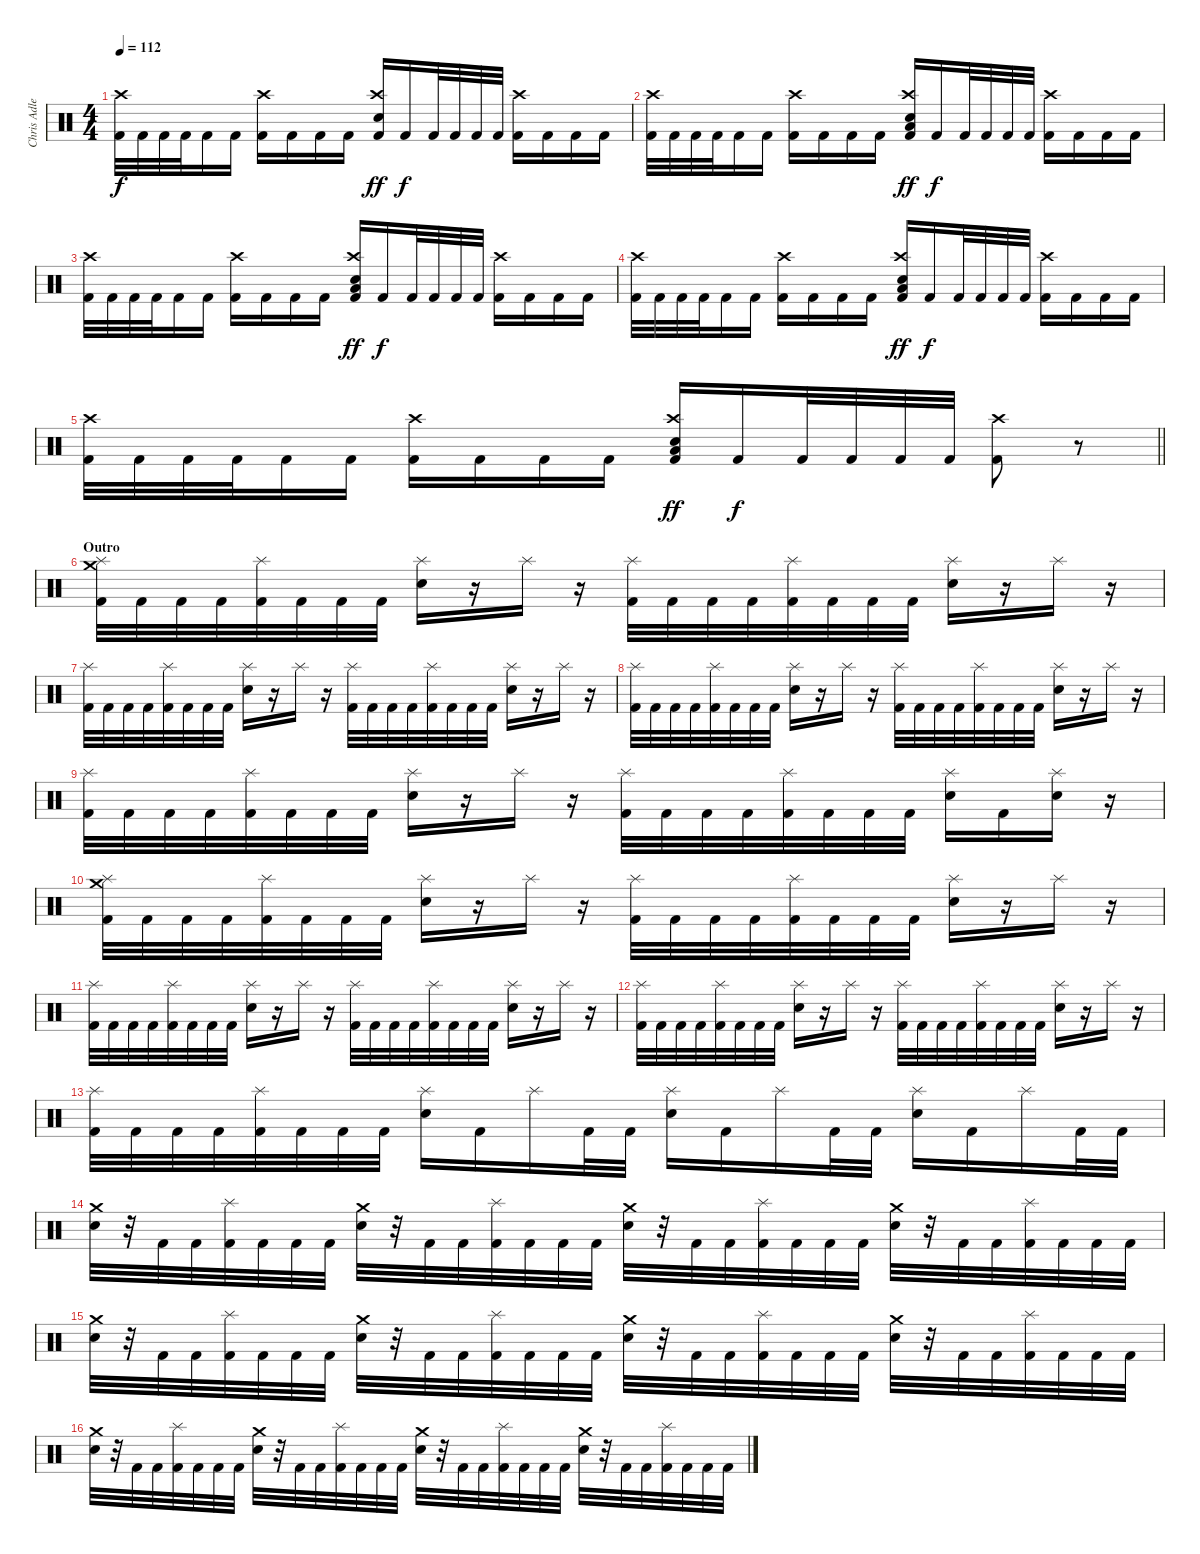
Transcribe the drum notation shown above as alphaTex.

\track ("Chris Adler" "Chris Adle") {instrument percussion}
\staff {score}
\articulation defaults
\ts (4 4)
\tempo 112
\clef neutral
\ks c
("Kick (hit) 2" "Crash high (hit)").32{dy f} "Kick (hit) 2".32 "Kick (hit) 2".32 "Kick (hit) 2".32 "Kick (hit) 2".16 "Kick (hit) 2".16 ("Kick (hit) 2" "Crash high (hit)").16 "Kick (hit) 2".16 "Kick (hit) 2".16 "Kick (hit) 2".16 ("Kick (hit) 2" "Electric Snare (hit)" "Crash high (hit)").16{dy ff} "Kick (hit) 2".16{dy f} "Kick (hit) 2".32 "Kick (hit) 2".32 "Kick (hit) 2".32 "Kick (hit) 2".32 ("Kick (hit) 2" "Crash high (hit)").16 "Kick (hit) 2".16 "Kick (hit) 2".16 "Kick (hit) 2".16 |
("Kick (hit) 2" "Crash high (hit)").32 "Kick (hit) 2".32 "Kick (hit) 2".32 "Kick (hit) 2".32 "Kick (hit) 2".16 "Kick (hit) 2".16 ("Kick (hit) 2" "Crash high (hit)").16 "Kick (hit) 2".16 "Kick (hit) 2".16 "Kick (hit) 2".16 ("Kick (hit) 2" "Low Floor Tom (hit)" "Electric Snare (hit)" "Crash high (hit)").16{dy ff} "Kick (hit) 2".16{dy f} "Kick (hit) 2".32 "Kick (hit) 2".32 "Kick (hit) 2".32 "Kick (hit) 2".32 ("Kick (hit) 2" "Crash high (hit)").16 "Kick (hit) 2".16 "Kick (hit) 2".16 "Kick (hit) 2".16 |
("Kick (hit) 2" "Crash high (hit)").32 "Kick (hit) 2".32 "Kick (hit) 2".32 "Kick (hit) 2".32 "Kick (hit) 2".16 "Kick (hit) 2".16 ("Kick (hit) 2" "Crash high (hit)").16 "Kick (hit) 2".16 "Kick (hit) 2".16 "Kick (hit) 2".16 ("Kick (hit) 2" "Low Floor Tom (hit)" "Electric Snare (hit)" "Crash high (hit)").16{dy ff} "Kick (hit) 2".16{dy f} "Kick (hit) 2".32 "Kick (hit) 2".32 "Kick (hit) 2".32 "Kick (hit) 2".32 ("Kick (hit) 2" "Crash high (hit)").16 "Kick (hit) 2".16 "Kick (hit) 2".16 "Kick (hit) 2".16 |
("Kick (hit) 2" "Crash high (hit)").32 "Kick (hit) 2".32 "Kick (hit) 2".32 "Kick (hit) 2".32 "Kick (hit) 2".16 "Kick (hit) 2".16 ("Kick (hit) 2" "Crash high (hit)").16 "Kick (hit) 2".16 "Kick (hit) 2".16 "Kick (hit) 2".16 ("Kick (hit) 2" "Low Floor Tom (hit)" "Electric Snare (hit)" "Crash high (hit)").16{dy ff} "Kick (hit) 2".16{dy f} "Kick (hit) 2".32 "Kick (hit) 2".32 "Kick (hit) 2".32 "Kick (hit) 2".32 ("Kick (hit) 2" "Crash high (hit)").16 "Kick (hit) 2".16 "Kick (hit) 2".16 "Kick (hit) 2".16 |
\barLineRight lightlight
("Kick (hit) 2" "Crash high (hit)").32 "Kick (hit) 2".32 "Kick (hit) 2".32 "Kick (hit) 2".32 "Kick (hit) 2".16 "Kick (hit) 2".16 ("Kick (hit) 2" "Crash high (hit)").16 "Kick (hit) 2".16 "Kick (hit) 2".16 "Kick (hit) 2".16 ("Kick (hit) 2" "Low Floor Tom (hit)" "Electric Snare (hit)" "Crash high (hit)").16{dy ff} "Kick (hit) 2".16{dy f} "Kick (hit) 2".32 "Kick (hit) 2".32 "Kick (hit) 2".32 "Kick (hit) 2".32 ("Kick (hit) 2" "Crash high (hit)").8 r.8 |
\section ("" "Outro")
("Kick (hit) 2" "Crash medium (hit)" "Splash (hit)").32 "Kick (hit) 2".32 "Kick (hit) 2".32 "Kick (hit) 2".32 ("Kick (hit) 2" "Splash (hit)").32 "Kick (hit) 2".32 "Kick (hit) 2".32 "Kick (hit) 2".32 ("Electric Snare (hit)" "Splash (hit)").16 r.16 "Splash (hit)".16 r.16 ("Kick (hit) 2" "Splash (hit)").32 "Kick (hit) 2".32 "Kick (hit) 2".32 "Kick (hit) 2".32 ("Kick (hit) 2" "Splash (hit)").32 "Kick (hit) 2".32 "Kick (hit) 2".32 "Kick (hit) 2".32 ("Electric Snare (hit)" "Splash (hit)").16 r.16 "Splash (hit)".16 r.16 |
("Kick (hit) 2" "Splash (hit)").32 "Kick (hit) 2".32 "Kick (hit) 2".32 "Kick (hit) 2".32 ("Kick (hit) 2" "Splash (hit)").32 "Kick (hit) 2".32 "Kick (hit) 2".32 "Kick (hit) 2".32 ("Electric Snare (hit)" "Splash (hit)").16 r.16 "Splash (hit)".16 r.16 ("Kick (hit) 2" "Splash (hit)").32 "Kick (hit) 2".32 "Kick (hit) 2".32 "Kick (hit) 2".32 ("Kick (hit) 2" "Splash (hit)").32 "Kick (hit) 2".32 "Kick (hit) 2".32 "Kick (hit) 2".32 ("Electric Snare (hit)" "Splash (hit)").16 r.16 "Splash (hit)".16 r.16 |
("Kick (hit) 2" "Splash (hit)").32 "Kick (hit) 2".32 "Kick (hit) 2".32 "Kick (hit) 2".32 ("Kick (hit) 2" "Splash (hit)").32 "Kick (hit) 2".32 "Kick (hit) 2".32 "Kick (hit) 2".32 ("Electric Snare (hit)" "Splash (hit)").16 r.16 "Splash (hit)".16 r.16 ("Kick (hit) 2" "Splash (hit)").32 "Kick (hit) 2".32 "Kick (hit) 2".32 "Kick (hit) 2".32 ("Kick (hit) 2" "Splash (hit)").32 "Kick (hit) 2".32 "Kick (hit) 2".32 "Kick (hit) 2".32 ("Electric Snare (hit)" "Splash (hit)").16 r.16 "Splash (hit)".16 r.16 |
("Kick (hit) 2" "Splash (hit)").32 "Kick (hit) 2".32 "Kick (hit) 2".32 "Kick (hit) 2".32 ("Kick (hit) 2" "Splash (hit)").32 "Kick (hit) 2".32 "Kick (hit) 2".32 "Kick (hit) 2".32 ("Electric Snare (hit)" "Splash (hit)").16 r.16 "Splash (hit)".16 r.16 ("Kick (hit) 2" "Splash (hit)").32 "Kick (hit) 2".32 "Kick (hit) 2".32 "Kick (hit) 2".32 ("Kick (hit) 2" "Splash (hit)").32 "Kick (hit) 2".32 "Kick (hit) 2".32 "Kick (hit) 2".32 ("Electric Snare (hit)" "Splash (hit)").16 "Kick (hit) 2".16 ("Electric Snare (hit)" "Splash (hit)").16 r.16 |
("Kick (hit) 2" "Crash medium (hit)" "Splash (hit)").32 "Kick (hit) 2".32 "Kick (hit) 2".32 "Kick (hit) 2".32 ("Kick (hit) 2" "Splash (hit)").32 "Kick (hit) 2".32 "Kick (hit) 2".32 "Kick (hit) 2".32 ("Electric Snare (hit)" "Splash (hit)").16 r.16 "Splash (hit)".16 r.16 ("Kick (hit) 2" "Splash (hit)").32 "Kick (hit) 2".32 "Kick (hit) 2".32 "Kick (hit) 2".32 ("Kick (hit) 2" "Splash (hit)").32 "Kick (hit) 2".32 "Kick (hit) 2".32 "Kick (hit) 2".32 ("Electric Snare (hit)" "Splash (hit)").16 r.16 "Splash (hit)".16 r.16 |
("Kick (hit) 2" "Splash (hit)").32 "Kick (hit) 2".32 "Kick (hit) 2".32 "Kick (hit) 2".32 ("Kick (hit) 2" "Splash (hit)").32 "Kick (hit) 2".32 "Kick (hit) 2".32 "Kick (hit) 2".32 ("Electric Snare (hit)" "Splash (hit)").16 r.16 "Splash (hit)".16 r.16 ("Kick (hit) 2" "Splash (hit)").32 "Kick (hit) 2".32 "Kick (hit) 2".32 "Kick (hit) 2".32 ("Kick (hit) 2" "Splash (hit)").32 "Kick (hit) 2".32 "Kick (hit) 2".32 "Kick (hit) 2".32 ("Electric Snare (hit)" "Splash (hit)").16 r.16 "Splash (hit)".16 r.16 |
("Kick (hit) 2" "Splash (hit)").32 "Kick (hit) 2".32 "Kick (hit) 2".32 "Kick (hit) 2".32 ("Kick (hit) 2" "Splash (hit)").32 "Kick (hit) 2".32 "Kick (hit) 2".32 "Kick (hit) 2".32 ("Electric Snare (hit)" "Splash (hit)").16 r.16 "Splash (hit)".16 r.16 ("Kick (hit) 2" "Splash (hit)").32 "Kick (hit) 2".32 "Kick (hit) 2".32 "Kick (hit) 2".32 ("Kick (hit) 2" "Splash (hit)").32 "Kick (hit) 2".32 "Kick (hit) 2".32 "Kick (hit) 2".32 ("Electric Snare (hit)" "Splash (hit)").16 r.16 "Splash (hit)".16 r.16 |
("Kick (hit) 2" "Splash (hit)").32 "Kick (hit) 2".32 "Kick (hit) 2".32 "Kick (hit) 2".32 ("Kick (hit) 2" "Splash (hit)").32 "Kick (hit) 2".32 "Kick (hit) 2".32 "Kick (hit) 2".32 ("Electric Snare (hit)" "Splash (hit)").16 "Kick (hit) 2".16 "Splash (hit)".16 "Kick (hit) 2".32 "Kick (hit) 2".32 ("Electric Snare (hit)" "Splash (hit)").16 "Kick (hit) 2".16 "Splash (hit)".16 "Kick (hit) 2".32 "Kick (hit) 2".32 ("Electric Snare (hit)" "Splash (hit)").16 "Kick (hit) 2".16 "Splash (hit)".16 "Kick (hit) 2".32 "Kick (hit) 2".32 |
("Electric Snare (hit)" "Crash medium (hit)").32 r.32 "Kick (hit) 2".32 "Kick (hit) 2".32 ("Kick (hit) 2" "Splash (hit)").32 "Kick (hit) 2".32 "Kick (hit) 2".32 "Kick (hit) 2".32 ("Electric Snare (hit)" "Crash medium (hit)").32 r.32 "Kick (hit) 2".32 "Kick (hit) 2".32 ("Kick (hit) 2" "Splash (hit)").32 "Kick (hit) 2".32 "Kick (hit) 2".32 "Kick (hit) 2".32 ("Electric Snare (hit)" "Crash medium (hit)").32 r.32 "Kick (hit) 2".32 "Kick (hit) 2".32 ("Kick (hit) 2" "Splash (hit)").32 "Kick (hit) 2".32 "Kick (hit) 2".32 "Kick (hit) 2".32 ("Electric Snare (hit)" "Crash medium (hit)").32 r.32 "Kick (hit) 2".32 "Kick (hit) 2".32 ("Kick (hit) 2" "Splash (hit)").32 "Kick (hit) 2".32 "Kick (hit) 2".32 "Kick (hit) 2".32 |
("Electric Snare (hit)" "Crash medium (hit)").32 r.32 "Kick (hit) 2".32 "Kick (hit) 2".32 ("Kick (hit) 2" "Splash (hit)").32 "Kick (hit) 2".32 "Kick (hit) 2".32 "Kick (hit) 2".32 ("Electric Snare (hit)" "Crash medium (hit)").32 r.32 "Kick (hit) 2".32 "Kick (hit) 2".32 ("Kick (hit) 2" "Splash (hit)").32 "Kick (hit) 2".32 "Kick (hit) 2".32 "Kick (hit) 2".32 ("Electric Snare (hit)" "Crash medium (hit)").32 r.32 "Kick (hit) 2".32 "Kick (hit) 2".32 ("Kick (hit) 2" "Splash (hit)").32 "Kick (hit) 2".32 "Kick (hit) 2".32 "Kick (hit) 2".32 ("Electric Snare (hit)" "Crash medium (hit)").32 r.32 "Kick (hit) 2".32 "Kick (hit) 2".32 ("Kick (hit) 2" "Splash (hit)").32 "Kick (hit) 2".32 "Kick (hit) 2".32 "Kick (hit) 2".32 |
("Electric Snare (hit)" "Crash medium (hit)").32 r.32 "Kick (hit) 2".32 "Kick (hit) 2".32 ("Kick (hit) 2" "Splash (hit)").32 "Kick (hit) 2".32 "Kick (hit) 2".32 "Kick (hit) 2".32 ("Electric Snare (hit)" "Crash medium (hit)").32 r.32 "Kick (hit) 2".32 "Kick (hit) 2".32 ("Kick (hit) 2" "Splash (hit)").32 "Kick (hit) 2".32 "Kick (hit) 2".32 "Kick (hit) 2".32 ("Electric Snare (hit)" "Crash medium (hit)").32 r.32 "Kick (hit) 2".32 "Kick (hit) 2".32 ("Kick (hit) 2" "Splash (hit)").32 "Kick (hit) 2".32 "Kick (hit) 2".32 "Kick (hit) 2".32 ("Electric Snare (hit)" "Crash medium (hit)").32 r.32 "Kick (hit) 2".32 "Kick (hit) 2".32 ("Kick (hit) 2" "Splash (hit)").32 "Kick (hit) 2".32 "Kick (hit) 2".32 "Kick (hit) 2".32
